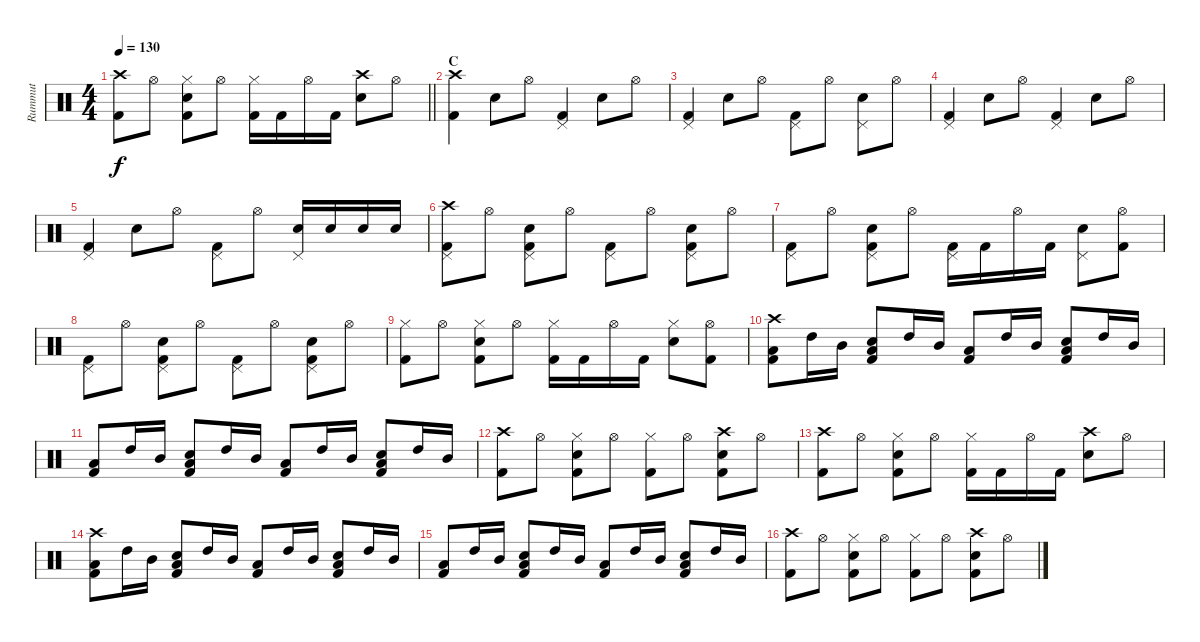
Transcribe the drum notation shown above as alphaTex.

\track ("Rummut" "Rummut") {instrument percussion}
\staff {score}
\articulation defaults
\ts (4 4)
\tempo 130
\clef neutral
\barLineRight lightlight
\ks c
("Crash high (hit)" "Kick (hit) 2").8{dy f} "Hi-Hat (open)".8 ("Hi-Hat (closed)" "Snare (hit) 2" "Kick (hit) 2").8 "Hi-Hat (open)".8 ("Hi-Hat (closed)" "Kick (hit) 2").16 "Kick (hit) 2".16 "Hi-Hat (open)".16 "Kick (hit) 2".16 ("Crash high (hit)" "Snare (hit) 2").8 "Hi-Hat (open)".8 |
\section ("" "C")
("Crash high (hit)" "Kick (hit) 2").4 "Snare (hit) 2".8 "Hi-Hat (open)".8 ("Pedal Hi-Hat (hit)" "Kick (hit) 2").4 "Snare (hit) 2".8 "Hi-Hat (open)".8 |
("Pedal Hi-Hat (hit)" "Kick (hit) 2").4 "Snare (hit) 2".8 "Hi-Hat (open)".8 ("Pedal Hi-Hat (hit)" "Kick (hit) 2").8 "Hi-Hat (open)".8 ("Pedal Hi-Hat (hit)" "Snare (hit) 2").8 "Hi-Hat (open)".8 |
("Pedal Hi-Hat (hit)" "Kick (hit) 2").4 "Snare (hit) 2".8 "Hi-Hat (open)".8 ("Pedal Hi-Hat (hit)" "Kick (hit) 2").4 "Snare (hit) 2".8 "Hi-Hat (open)".8 |
("Pedal Hi-Hat (hit)" "Kick (hit) 2").4 "Snare (hit) 2".8 "Hi-Hat (open)".8 ("Pedal Hi-Hat (hit)" "Kick (hit) 2").8 "Hi-Hat (open)".8 ("Pedal Hi-Hat (hit)" "Snare (hit) 2").16 "Snare (hit) 2".16 "Snare (hit) 2".16 "Snare (hit) 2".16 |
("Crash high (hit)" "Pedal Hi-Hat (hit)" "Kick (hit) 2").8 "Hi-Hat (open)".8 ("Pedal Hi-Hat (hit)" "Snare (hit) 2" "Kick (hit) 2").8 "Hi-Hat (open)".8 ("Pedal Hi-Hat (hit)" "Kick (hit) 2").8 "Hi-Hat (open)".8 ("Pedal Hi-Hat (hit)" "Snare (hit) 2" "Kick (hit) 2").8 "Hi-Hat (open)".8 |
("Pedal Hi-Hat (hit)" "Kick (hit) 2").8 "Hi-Hat (open)".8 ("Pedal Hi-Hat (hit)" "Snare (hit) 2" "Kick (hit) 2").8 "Hi-Hat (open)".8 ("Pedal Hi-Hat (hit)" "Kick (hit) 2").16 "Kick (hit) 2".16 "Hi-Hat (open)".16 "Kick (hit) 2".16 ("Pedal Hi-Hat (hit)" "Snare (hit) 2").8 ("Hi-Hat (open)" "Kick (hit) 2").8 |
("Pedal Hi-Hat (hit)" "Kick (hit) 2").8 "Hi-Hat (open)".8 ("Pedal Hi-Hat (hit)" "Snare (hit) 2" "Kick (hit) 2").8 "Hi-Hat (open)".8 ("Pedal Hi-Hat (hit)" "Kick (hit) 2").8 "Hi-Hat (open)".8 ("Pedal Hi-Hat (hit)" "Snare (hit) 2" "Kick (hit) 2").8 "Hi-Hat (open)".8 |
("Hi-Hat (closed)" "Kick (hit) 2").8 "Hi-Hat (open)".8 ("Hi-Hat (closed)" "Snare (hit) 2" "Kick (hit) 2").8 "Hi-Hat (open)".8 ("Hi-Hat (closed)" "Kick (hit) 2").16 "Kick (hit) 2".16 "Hi-Hat (open)".16 "Kick (hit) 2".16 ("Hi-Hat (closed)" "Snare (hit) 2").8 ("Hi-Hat (open)" "Kick (hit) 2").8 |
("Crash high (hit)" "Low Tom (hit)" "Kick (hit) 2").8 "High Tom (hit)".16 "Mid Tom (hit)".16 ("Snare (hit) 2" "Low Tom (hit)" "Kick (hit) 2").8 "High Tom (hit)".16 "Mid Tom (hit)".16 ("Low Tom (hit)" "Kick (hit) 2").8 "High Tom (hit)".16 "Mid Tom (hit)".16 ("Snare (hit) 2" "Low Tom (hit)" "Kick (hit) 2").8 "High Tom (hit)".16 "Mid Tom (hit)".16 |
("Low Tom (hit)" "Kick (hit) 2").8 "High Tom (hit)".16 "Mid Tom (hit)".16 ("Snare (hit) 2" "Low Tom (hit)" "Kick (hit) 2").8 "High Tom (hit)".16 "Mid Tom (hit)".16 ("Low Tom (hit)" "Kick (hit) 2").8 "High Tom (hit)".16 "Mid Tom (hit)".16 ("Snare (hit) 2" "Low Tom (hit)" "Kick (hit) 2").8 "High Tom (hit)".16 "Mid Tom (hit)".16 |
("Crash high (hit)" "Kick (hit) 2").8 "Hi-Hat (open)".8 ("Hi-Hat (closed)" "Snare (hit) 2" "Kick (hit) 2").8 "Hi-Hat (open)".8 ("Hi-Hat (closed)" "Kick (hit) 2").8 "Hi-Hat (open)".8 ("Crash high (hit)" "Snare (hit) 2" "Kick (hit) 2").8 "Hi-Hat (open)".8 |
("Crash high (hit)" "Kick (hit) 2").8 "Hi-Hat (open)".8 ("Hi-Hat (closed)" "Snare (hit) 2" "Kick (hit) 2").8 "Hi-Hat (open)".8 ("Hi-Hat (closed)" "Kick (hit) 2").16 "Kick (hit) 2".16 "Hi-Hat (open)".16 "Kick (hit) 2".16 ("Crash high (hit)" "Snare (hit) 2").8 "Hi-Hat (open)".8 |
("Crash high (hit)" "Low Tom (hit)" "Kick (hit) 2").8 "High Tom (hit)".16 "Mid Tom (hit)".16 ("Snare (hit) 2" "Low Tom (hit)" "Kick (hit) 2").8 "High Tom (hit)".16 "Mid Tom (hit)".16 ("Low Tom (hit)" "Kick (hit) 2").8 "High Tom (hit)".16 "Mid Tom (hit)".16 ("Snare (hit) 2" "Low Tom (hit)" "Kick (hit) 2").8 "High Tom (hit)".16 "Mid Tom (hit)".16 |
("Low Tom (hit)" "Kick (hit) 2").8 "High Tom (hit)".16 "Mid Tom (hit)".16 ("Snare (hit) 2" "Low Tom (hit)" "Kick (hit) 2").8 "High Tom (hit)".16 "Mid Tom (hit)".16 ("Low Tom (hit)" "Kick (hit) 2").8 "High Tom (hit)".16 "Mid Tom (hit)".16 ("Snare (hit) 2" "Low Tom (hit)" "Kick (hit) 2").8 "High Tom (hit)".16 "Mid Tom (hit)".16 |
("Crash high (hit)" "Kick (hit) 2").8 "Hi-Hat (open)".8 ("Hi-Hat (closed)" "Snare (hit) 2" "Kick (hit) 2").8 "Hi-Hat (open)".8 ("Hi-Hat (closed)" "Kick (hit) 2").8 "Hi-Hat (open)".8 ("Crash high (hit)" "Snare (hit) 2" "Kick (hit) 2").8 "Hi-Hat (open)".8
